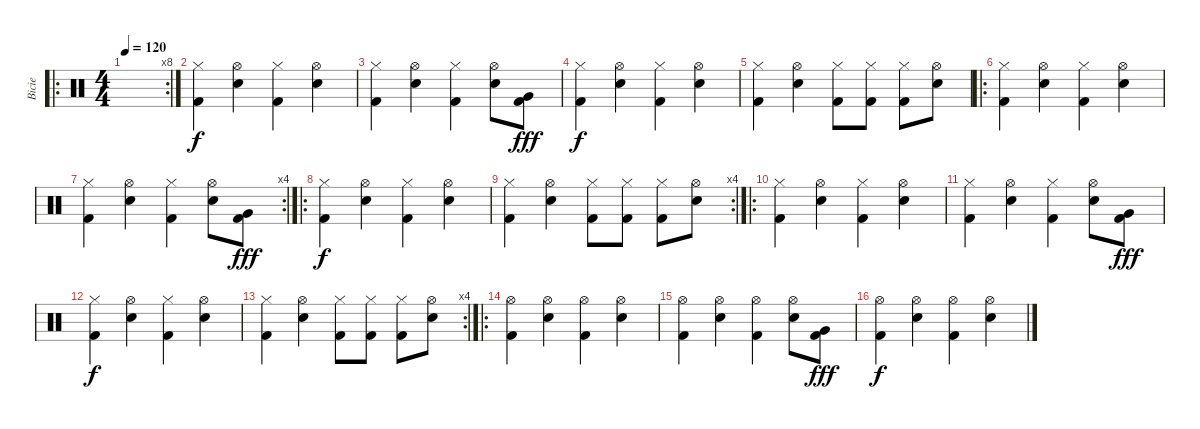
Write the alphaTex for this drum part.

\track ("Bicie" "Bicie") {instrument percussion}
\staff {score}
\articulation defaults
\ro
\rc 8
\ts (4 4)
\tempo 120
\clef neutral
\ks c
|
("Hi-Hat (closed)" "Kick (hit) 2").4 ("Hi-Hat (open)" "Snare (hit) 2").4 ("Hi-Hat (closed)" "Kick (hit) 2").4 ("Hi-Hat (open)" "Snare (hit) 2").4 |
("Hi-Hat (closed)" "Kick (hit) 2").4 ("Hi-Hat (open)" "Snare (hit) 2").4 ("Hi-Hat (closed)" "Kick (hit) 2").4 ("Hi-Hat (open)" "Snare (hit) 2").8 ("Kick (hit) 2" "Very Low Tom (hit)").8{dy fff} |
("Hi-Hat (closed)" "Kick (hit) 2").4{dy f} ("Hi-Hat (open)" "Snare (hit) 2").4 ("Hi-Hat (closed)" "Kick (hit) 2").4 ("Hi-Hat (open)" "Snare (hit) 2").4 |
("Hi-Hat (closed)" "Kick (hit) 2").4 ("Hi-Hat (open)" "Snare (hit) 2").4 ("Hi-Hat (closed)" "Kick (hit) 2").8 ("Hi-Hat (closed)" "Kick (hit) 2").8 ("Hi-Hat (closed)" "Kick (hit) 2").8 ("Hi-Hat (open)" "Snare (hit) 2").8 |
\ro
("Hi-Hat (closed)" "Kick (hit) 2").4 ("Hi-Hat (open)" "Snare (hit) 2").4 ("Hi-Hat (closed)" "Kick (hit) 2").4 ("Hi-Hat (open)" "Snare (hit) 2").4 |
\rc 4
("Hi-Hat (closed)" "Kick (hit) 2").4 ("Hi-Hat (open)" "Snare (hit) 2").4 ("Hi-Hat (closed)" "Kick (hit) 2").4 ("Hi-Hat (open)" "Snare (hit) 2").8 ("Kick (hit) 2" "Very Low Tom (hit)").8{dy fff} |
\ro
("Hi-Hat (closed)" "Kick (hit) 2").4{dy f} ("Hi-Hat (open)" "Snare (hit) 2").4 ("Hi-Hat (closed)" "Kick (hit) 2").4 ("Hi-Hat (open)" "Snare (hit) 2").4 |
\rc 4
("Hi-Hat (closed)" "Kick (hit) 2").4 ("Hi-Hat (open)" "Snare (hit) 2").4 ("Hi-Hat (closed)" "Kick (hit) 2").8 ("Hi-Hat (closed)" "Kick (hit) 2").8 ("Hi-Hat (closed)" "Kick (hit) 2").8 ("Hi-Hat (open)" "Snare (hit) 2").8 |
\ro
("Hi-Hat (closed)" "Kick (hit) 2").4 ("Hi-Hat (open)" "Snare (hit) 2").4 ("Hi-Hat (closed)" "Kick (hit) 2").4 ("Hi-Hat (open)" "Snare (hit) 2").4 |
("Hi-Hat (closed)" "Kick (hit) 2").4 ("Hi-Hat (open)" "Snare (hit) 2").4 ("Hi-Hat (closed)" "Kick (hit) 2").4 ("Hi-Hat (open)" "Snare (hit) 2").8 ("Kick (hit) 2" "Very Low Tom (hit)").8{dy fff} |
("Hi-Hat (closed)" "Kick (hit) 2").4{dy f} ("Hi-Hat (open)" "Snare (hit) 2").4 ("Hi-Hat (closed)" "Kick (hit) 2").4 ("Hi-Hat (open)" "Snare (hit) 2").4 |
\rc 4
("Hi-Hat (closed)" "Kick (hit) 2").4 ("Hi-Hat (open)" "Snare (hit) 2").4 ("Hi-Hat (closed)" "Kick (hit) 2").8 ("Hi-Hat (closed)" "Kick (hit) 2").8 ("Hi-Hat (closed)" "Kick (hit) 2").8 ("Hi-Hat (open)" "Snare (hit) 2").8 |
\ro
("Hi-Hat (open)" "Kick (hit) 2").4 ("Hi-Hat (open)" "Snare (hit) 2").4 ("Hi-Hat (open)" "Kick (hit) 2").4 ("Hi-Hat (open)" "Snare (hit) 2").4 |
("Hi-Hat (open)" "Kick (hit) 2").4 ("Hi-Hat (open)" "Snare (hit) 2").4 ("Hi-Hat (open)" "Kick (hit) 2").4 ("Hi-Hat (open)" "Snare (hit) 2").8 ("Kick (hit) 2" "Very Low Tom (hit)").8{dy fff} |
("Hi-Hat (open)" "Kick (hit) 2").4{dy f} ("Hi-Hat (open)" "Snare (hit) 2").4 ("Hi-Hat (open)" "Kick (hit) 2").4 ("Hi-Hat (open)" "Snare (hit) 2").4
